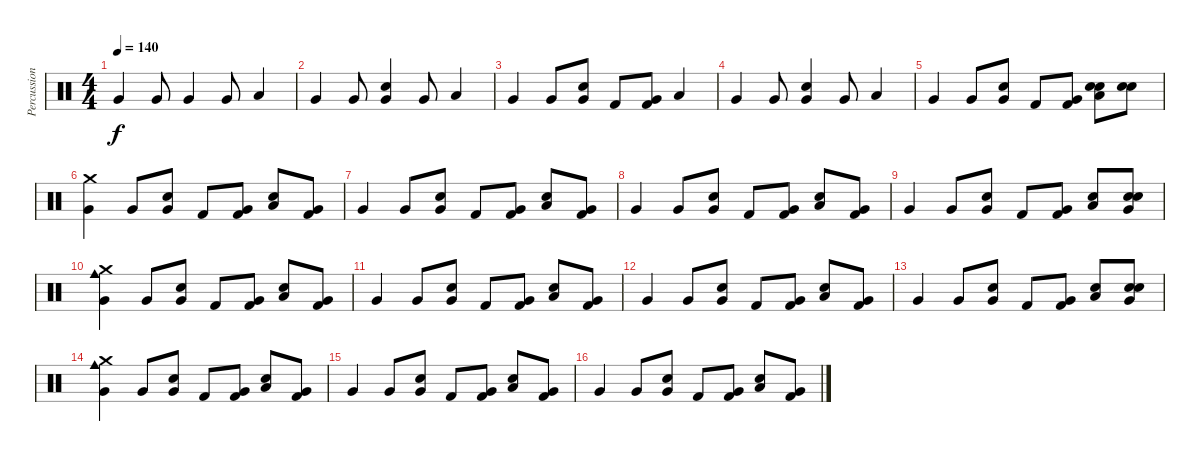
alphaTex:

\track ("Percussions" "Percussion") {instrument percussion}
\staff {score}
\articulation defaults
\ts (4 4)
\tempo 140
\clef neutral
\ks c "Very Low Tom (hit)".4{dy f} "Very Low Tom (hit)".8 "Very Low Tom (hit)".4 "Very Low Tom (hit)".8 "Low Tom (hit)".4
|
"Very Low Tom (hit)".4 "Very Low Tom (hit)".8 ("Snare (hit) 2" "Very Low Tom (hit)").4 "Very Low Tom (hit)".8 "Low Tom (hit)".4 |
"Very Low Tom (hit)".4 "Very Low Tom (hit)".8 ("Snare (hit) 2" "Very Low Tom (hit)").8 "Kick (hit) 2".8 ("Kick (hit) 2" "Very Low Tom (hit)").8 "Low Tom (hit)".4 |
"Very Low Tom (hit)".4 "Very Low Tom (hit)".8 ("Snare (hit) 2" "Very Low Tom (hit)").4 "Very Low Tom (hit)".8 "Low Tom (hit)".4 |
"Very Low Tom (hit)".4 "Very Low Tom (hit)".8 ("Snare (hit) 2" "Very Low Tom (hit)").8 "Kick (hit) 2".8 ("Kick (hit) 2" "Very Low Tom (hit)").8 ("Snare (hit) 2" "Snare (hit) 2" "Low Tom (hit)").8 ("Snare (hit) 2" "Snare (hit) 2").8 |
("Crash medium (hit)" "Very Low Tom (hit)").4 "Very Low Tom (hit)".8 ("Snare (hit) 2" "Very Low Tom (hit)").8 "Kick (hit) 2".8 ("Kick (hit) 2" "Very Low Tom (hit)").8 ("Snare (hit) 2" "Low Tom (hit)").8 ("Kick (hit) 2" "Very Low Tom (hit)").8 |
"Very Low Tom (hit)".4 "Very Low Tom (hit)".8 ("Snare (hit) 2" "Very Low Tom (hit)").8 "Kick (hit) 2".8 ("Kick (hit) 2" "Very Low Tom (hit)").8 ("Snare (hit) 2" "Low Tom (hit)").8 ("Kick (hit) 2" "Very Low Tom (hit)").8 |
"Very Low Tom (hit)".4 "Very Low Tom (hit)".8 ("Snare (hit) 2" "Very Low Tom (hit)").8 "Kick (hit) 2".8 ("Kick (hit) 2" "Very Low Tom (hit)").8 ("Snare (hit) 2" "Low Tom (hit)").8 ("Kick (hit) 2" "Very Low Tom (hit)").8 |
"Very Low Tom (hit)".4 "Very Low Tom (hit)".8 ("Snare (hit) 2" "Very Low Tom (hit)").8 "Kick (hit) 2".8 ("Kick (hit) 2" "Very Low Tom (hit)").8 ("Snare (hit) 2" "Low Tom (hit)").8 ("Snare (hit) 2" "Snare (hit) 2" "Very Low Tom (hit)").8 |
("Cowbell medium (hit)" "Crash medium (hit)" "Very Low Tom (hit)").4 "Very Low Tom (hit)".8 ("Snare (hit) 2" "Very Low Tom (hit)").8 "Kick (hit) 2".8 ("Kick (hit) 2" "Very Low Tom (hit)").8 ("Snare (hit) 2" "Low Tom (hit)").8 ("Kick (hit) 2" "Very Low Tom (hit)").8 |
"Very Low Tom (hit)".4 "Very Low Tom (hit)".8 ("Snare (hit) 2" "Very Low Tom (hit)").8 "Kick (hit) 2".8 ("Kick (hit) 2" "Very Low Tom (hit)").8 ("Snare (hit) 2" "Low Tom (hit)").8 ("Kick (hit) 2" "Very Low Tom (hit)").8 |
"Very Low Tom (hit)".4 "Very Low Tom (hit)".8 ("Snare (hit) 2" "Very Low Tom (hit)").8 "Kick (hit) 2".8 ("Kick (hit) 2" "Very Low Tom (hit)").8 ("Snare (hit) 2" "Low Tom (hit)").8 ("Kick (hit) 2" "Very Low Tom (hit)").8 |
"Very Low Tom (hit)".4 "Very Low Tom (hit)".8 ("Snare (hit) 2" "Very Low Tom (hit)").8 "Kick (hit) 2".8 ("Kick (hit) 2" "Very Low Tom (hit)").8 ("Snare (hit) 2" "Low Tom (hit)").8 ("Snare (hit) 2" "Snare (hit) 2" "Very Low Tom (hit)").8 |
("Cowbell medium (hit)" "Crash medium (hit)" "Very Low Tom (hit)").4 "Very Low Tom (hit)".8 ("Snare (hit) 2" "Very Low Tom (hit)").8 "Kick (hit) 2".8 ("Kick (hit) 2" "Very Low Tom (hit)").8 ("Snare (hit) 2" "Low Tom (hit)").8 ("Kick (hit) 2" "Very Low Tom (hit)").8 |
"Very Low Tom (hit)".4 "Very Low Tom (hit)".8 ("Snare (hit) 2" "Very Low Tom (hit)").8 "Kick (hit) 2".8 ("Kick (hit) 2" "Very Low Tom (hit)").8 ("Snare (hit) 2" "Low Tom (hit)").8 ("Kick (hit) 2" "Very Low Tom (hit)").8 |
"Very Low Tom (hit)".4 "Very Low Tom (hit)".8 ("Snare (hit) 2" "Very Low Tom (hit)").8 "Kick (hit) 2".8 ("Kick (hit) 2" "Very Low Tom (hit)").8 ("Snare (hit) 2" "Low Tom (hit)").8 ("Kick (hit) 2" "Very Low Tom (hit)").8
